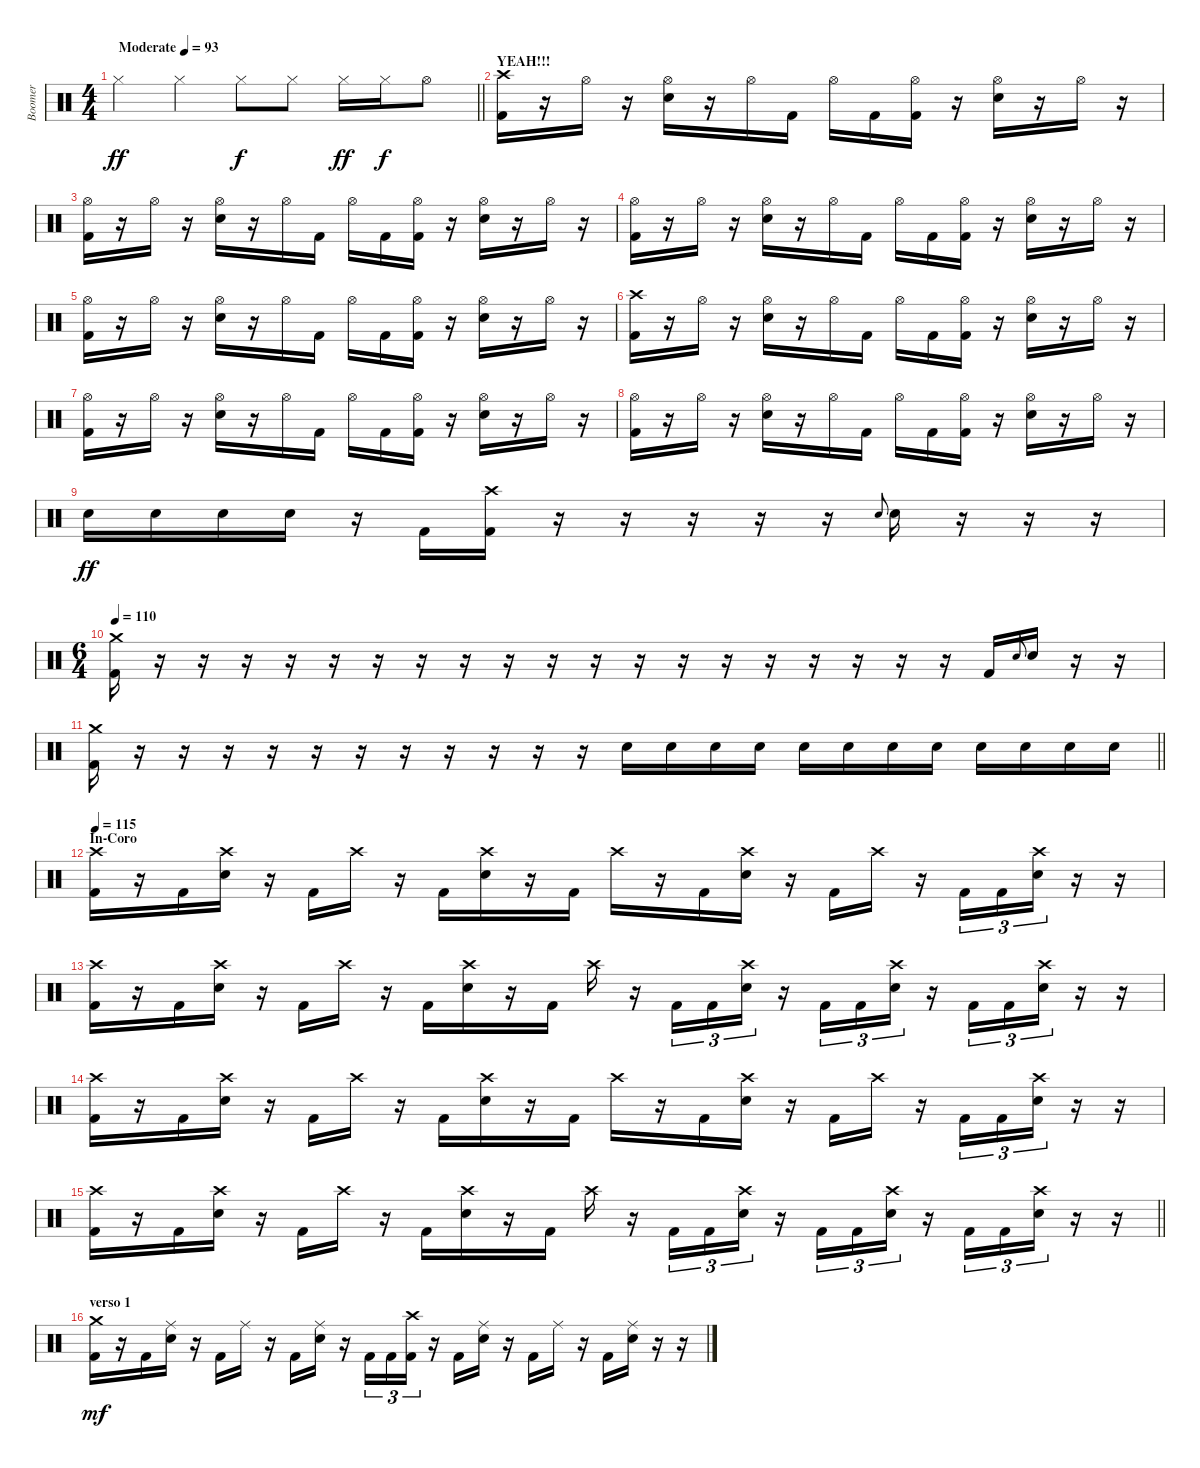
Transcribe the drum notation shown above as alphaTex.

\track ("Boomer" "Boomer") {instrument percussion}
\staff {score}
\articulation defaults
\ts (4 4)
\tempo (93 "Moderate")
\clef neutral
\barLineRight lightlight
\ks c "Hi-Hat (closed)".4{dy ff} "Hi-Hat (closed)".4 "Hi-Hat (closed)".8{dy f} "Hi-Hat (closed)".8 "Hi-Hat (closed)".16{dy ff} "Hi-Hat (closed)".16{dy f} "Hi-Hat (open)".8
|
\section ("" "YEAH!!!")
("Crash high (hit)" "Kick (hit) 2").16 r.16 "Hi-Hat (open)".16 r.16 ("Hi-Hat (open)" "Electric Snare (hit)").16 r.16 "Hi-Hat (open)".16 "Kick (hit) 2".16 "Hi-Hat (open)".16 "Kick (hit) 2".16 ("Hi-Hat (open)" "Kick (hit) 2").16 r.16 ("Hi-Hat (open)" "Electric Snare (hit)").16 r.16 "Hi-Hat (open)".16 r.16 |
("Hi-Hat (open)" "Kick (hit) 2").16 r.16 "Hi-Hat (open)".16 r.16 ("Hi-Hat (open)" "Electric Snare (hit)").16 r.16 "Hi-Hat (open)".16 "Kick (hit) 2".16 "Hi-Hat (open)".16 "Kick (hit) 2".16 ("Hi-Hat (open)" "Kick (hit) 2").16 r.16 ("Hi-Hat (open)" "Electric Snare (hit)").16 r.16 "Hi-Hat (open)".16 r.16 |
("Hi-Hat (open)" "Kick (hit) 2").16 r.16 "Hi-Hat (open)".16 r.16 ("Hi-Hat (open)" "Electric Snare (hit)").16 r.16 "Hi-Hat (open)".16 "Kick (hit) 2".16 "Hi-Hat (open)".16 "Kick (hit) 2".16 ("Hi-Hat (open)" "Kick (hit) 2").16 r.16 ("Hi-Hat (open)" "Electric Snare (hit)").16 r.16 "Hi-Hat (open)".16 r.16 |
("Hi-Hat (open)" "Kick (hit) 2").16 r.16 "Hi-Hat (open)".16 r.16 ("Hi-Hat (open)" "Electric Snare (hit)").16 r.16 "Hi-Hat (open)".16 "Kick (hit) 2".16 "Hi-Hat (open)".16 "Kick (hit) 2".16 ("Hi-Hat (open)" "Kick (hit) 2").16 r.16 ("Hi-Hat (open)" "Electric Snare (hit)").16 r.16 "Hi-Hat (open)".16 r.16 |
("Crash high (hit)" "Kick (hit) 2").16 r.16 "Hi-Hat (open)".16 r.16 ("Hi-Hat (open)" "Electric Snare (hit)").16 r.16 "Hi-Hat (open)".16 "Kick (hit) 2".16 "Hi-Hat (open)".16 "Kick (hit) 2".16 ("Hi-Hat (open)" "Kick (hit) 2").16 r.16 ("Hi-Hat (open)" "Electric Snare (hit)").16 r.16 "Hi-Hat (open)".16 r.16 |
("Hi-Hat (open)" "Kick (hit) 2").16 r.16 "Hi-Hat (open)".16 r.16 ("Hi-Hat (open)" "Electric Snare (hit)").16 r.16 "Hi-Hat (open)".16 "Kick (hit) 2".16 "Hi-Hat (open)".16 "Kick (hit) 2".16 ("Hi-Hat (open)" "Kick (hit) 2").16 r.16 ("Hi-Hat (open)" "Electric Snare (hit)").16 r.16 "Hi-Hat (open)".16 r.16 |
("Hi-Hat (open)" "Kick (hit) 2").16 r.16 "Hi-Hat (open)".16 r.16 ("Hi-Hat (open)" "Electric Snare (hit)").16 r.16 "Hi-Hat (open)".16 "Kick (hit) 2".16 "Hi-Hat (open)".16 "Kick (hit) 2".16 ("Hi-Hat (open)" "Kick (hit) 2").16 r.16 ("Hi-Hat (open)" "Electric Snare (hit)").16 r.16 "Hi-Hat (open)".16 r.16 |
"Electric Snare (hit)".16{dy ff} "Electric Snare (hit)".16 "Electric Snare (hit)".16 "Electric Snare (hit)".16 r.16 "Kick (hit) 2".16 ("Crash high (hit)" "Kick (hit) 2").16 r.16 r.16 r.16 r.16 r.16 "Electric Snare (hit)".8{gr onbeat} "Electric Snare (hit)".16 r.16 r.16 r.16 |
\ts (6 4)
\tempo 110
("Crash medium (hit)" "Kick (hit) 2").16 r.16 r.16 r.16 r.16 r.16 r.16 r.16 r.16 r.16 r.16 r.16 r.16 r.16 r.16 r.16 r.16 r.16 r.16 r.16 "Kick (hit) 2".16 "Electric Snare (hit)".8{gr onbeat} "Electric Snare (hit)".16 r.16 r.16 |
\barLineRight lightlight
("Crash medium (hit)" "Kick (hit) 2").16 r.16 r.16 r.16 r.16 r.16 r.16 r.16 r.16 r.16 r.16 r.16 "Electric Snare (hit)".16 "Electric Snare (hit)".16 "Electric Snare (hit)".16 "Electric Snare (hit)".16 "Electric Snare (hit)".16 "Electric Snare (hit)".16 "Electric Snare (hit)".16 "Electric Snare (hit)".16 "Electric Snare (hit)".16 "Electric Snare (hit)".16 "Electric Snare (hit)".16 "Electric Snare (hit)".16 |
\section ("" "In-Coro")
\tempo 115
("Crash high (hit)" "Kick (hit) 2").16 r.16 "Kick (hit) 2".16 ("Crash high (hit)" "Electric Snare (hit)").16 r.16 "Kick (hit) 2".16 "Crash high (hit)".16 r.16 "Kick (hit) 2".16 ("Crash high (hit)" "Electric Snare (hit)").16 r.16 "Kick (hit) 2".16 "Crash high (hit)".16 r.16 "Kick (hit) 2".16 ("Crash high (hit)" "Electric Snare (hit)").16 r.16 "Kick (hit) 2".16 "Crash high (hit)".16 r.16 "Kick (hit) 2".16{tu (3 2)} "Kick (hit) 2".16{tu (3 2)} ("Crash high (hit)" "Electric Snare (hit)").16{tu (3 2)} r.16 r.16 |
("Crash high (hit)" "Kick (hit) 2").16 r.16 "Kick (hit) 2".16 ("Crash high (hit)" "Electric Snare (hit)").16 r.16 "Kick (hit) 2".16 "Crash high (hit)".16 r.16 "Kick (hit) 2".16 ("Crash high (hit)" "Electric Snare (hit)").16 r.16 "Kick (hit) 2".16 "Crash high (hit)".16 r.16 "Kick (hit) 2".16{tu (3 2)} "Kick (hit) 2".16{tu (3 2)} ("Crash high (hit)" "Electric Snare (hit)").16{tu (3 2)} r.16 "Kick (hit) 2".16{tu (3 2)} "Kick (hit) 2".16{tu (3 2)} ("Crash high (hit)" "Electric Snare (hit)").16{tu (3 2)} r.16 "Kick (hit) 2".16{tu (3 2)} "Kick (hit) 2".16{tu (3 2)} ("Crash high (hit)" "Electric Snare (hit)").16{tu (3 2)} r.16 r.16 |
("Crash high (hit)" "Kick (hit) 2").16 r.16 "Kick (hit) 2".16 ("Crash high (hit)" "Electric Snare (hit)").16 r.16 "Kick (hit) 2".16 "Crash high (hit)".16 r.16 "Kick (hit) 2".16 ("Crash high (hit)" "Electric Snare (hit)").16 r.16 "Kick (hit) 2".16 "Crash high (hit)".16 r.16 "Kick (hit) 2".16 ("Crash high (hit)" "Electric Snare (hit)").16 r.16 "Kick (hit) 2".16 "Crash high (hit)".16 r.16 "Kick (hit) 2".16{tu (3 2)} "Kick (hit) 2".16{tu (3 2)} ("Crash high (hit)" "Electric Snare (hit)").16{tu (3 2)} r.16 r.16 |
\barLineRight lightlight
("Crash high (hit)" "Kick (hit) 2").16 r.16 "Kick (hit) 2".16 ("Crash high (hit)" "Electric Snare (hit)").16 r.16 "Kick (hit) 2".16 "Crash high (hit)".16 r.16 "Kick (hit) 2".16 ("Crash high (hit)" "Electric Snare (hit)").16 r.16 "Kick (hit) 2".16 "Crash high (hit)".16 r.16 "Kick (hit) 2".16{tu (3 2)} "Kick (hit) 2".16{tu (3 2)} ("Crash high (hit)" "Electric Snare (hit)").16{tu (3 2)} r.16 "Kick (hit) 2".16{tu (3 2)} "Kick (hit) 2".16{tu (3 2)} ("Crash high (hit)" "Electric Snare (hit)").16{tu (3 2)} r.16 "Kick (hit) 2".16{tu (3 2)} "Kick (hit) 2".16{tu (3 2)} ("Crash high (hit)" "Electric Snare (hit)").16{tu (3 2)} r.16 r.16 |
\section ("" "verso 1")
("Crash medium (hit)" "Kick (hit) 2").16{dy mf} r.16 "Kick (hit) 2".16 ("Ride (middle)" "Electric Snare (hit)").16 r.16 "Kick (hit) 2".16 "Ride (middle)".16 r.16 "Kick (hit) 2".16 ("Ride (middle)" "Electric Snare (hit)").16 r.16 "Kick (hit) 2".16{tu (3 2)} "Kick (hit) 2".16{tu (3 2)} ("Crash high (hit)" "Kick (hit) 2").16{tu (3 2)} r.16 "Kick (hit) 2".16 ("Ride (middle)" "Electric Snare (hit)").16 r.16 "Kick (hit) 2".16 "Ride (middle)".16 r.16 "Kick (hit) 2".16 ("Ride (middle)" "Electric Snare (hit)").16 r.16 r.16
